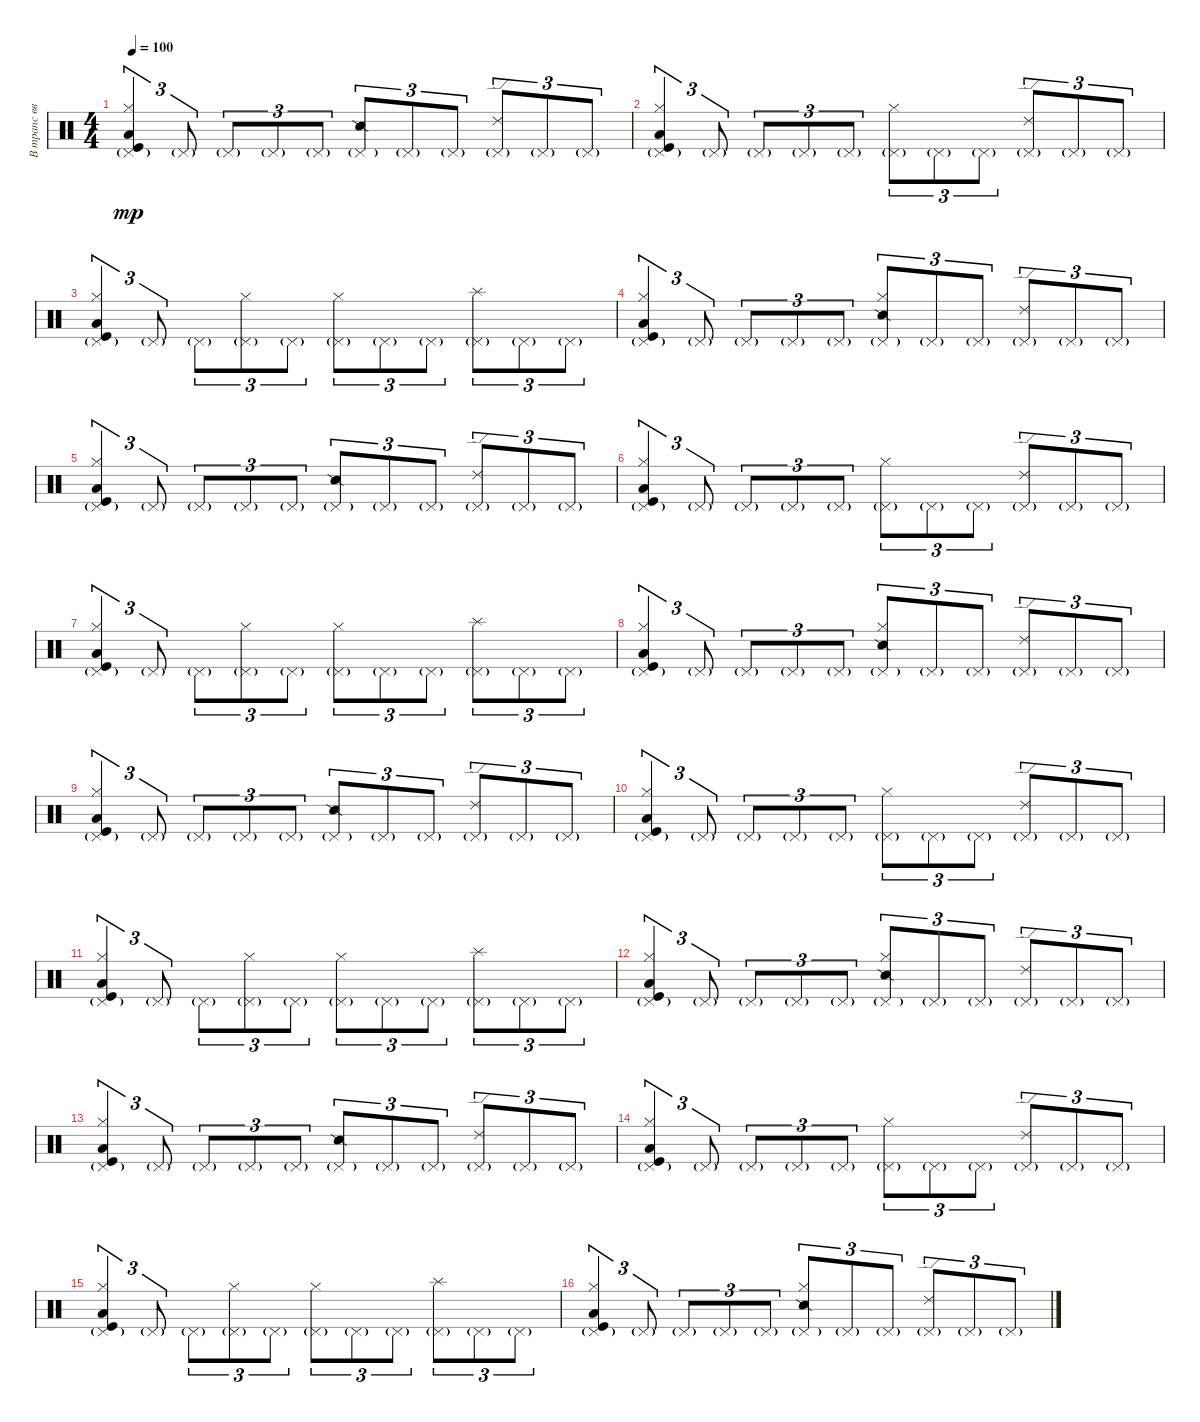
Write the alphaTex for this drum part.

\track ("В транс вводящие" "В транс вв") {instrument percussion}
\staff {score}
\articulation defaults
\ts (4 4)
\tempo 100
\clef neutral
\ks c
("Pedal Hi-Hat (hit)"{g} "Hi-Hat (closed)" "Low Tom (hit)" "Kick (hit)").4{tu (3 2) dy mp} "Pedal Hi-Hat (hit)"{g}.8{tu (3 2)} "Pedal Hi-Hat (hit)"{g}.8{tu (3 2)} "Pedal Hi-Hat (hit)"{g}.8{tu (3 2)} "Pedal Hi-Hat (hit)"{g}.8{tu (3 2)} ("Pedal Hi-Hat (hit)"{g} "Snare (side stick) 2").8{tu (3 2)} "Pedal Hi-Hat (hit)"{g}.8{tu (3 2)} "Pedal Hi-Hat (hit)"{g}.8{tu (3 2)} ("Pedal Hi-Hat (hit)"{g} "Ride (edge) 2").8{tu (3 2)} "Pedal Hi-Hat (hit)"{g}.8{tu (3 2)} "Pedal Hi-Hat (hit)"{g}.8{tu (3 2)} |
("Pedal Hi-Hat (hit)"{g} "Hi-Hat (closed)" "Low Tom (hit)" "Kick (hit)").4{tu (3 2)} "Pedal Hi-Hat (hit)"{g}.8{tu (3 2)} "Pedal Hi-Hat (hit)"{g}.8{tu (3 2)} "Pedal Hi-Hat (hit)"{g}.8{tu (3 2)} "Pedal Hi-Hat (hit)"{g}.8{tu (3 2)} ("Pedal Hi-Hat (hit)"{g} "Hi-Hat (closed)").8{tu (3 2)} "Pedal Hi-Hat (hit)"{g}.8{tu (3 2)} "Pedal Hi-Hat (hit)"{g}.8{tu (3 2)} ("Pedal Hi-Hat (hit)"{g} "Ride (edge) 2").8{tu (3 2)} "Pedal Hi-Hat (hit)"{g}.8{tu (3 2)} "Pedal Hi-Hat (hit)"{g}.8{tu (3 2)} |
("Pedal Hi-Hat (hit)"{g} "Hi-Hat (closed)" "Low Tom (hit)" "Kick (hit)").4{tu (3 2)} "Pedal Hi-Hat (hit)"{g}.8{tu (3 2)} "Pedal Hi-Hat (hit)"{g}.8{tu (3 2)} ("Pedal Hi-Hat (hit)"{g} "Hi-Hat (closed)").8{tu (3 2)} "Pedal Hi-Hat (hit)"{g}.8{tu (3 2)} ("Pedal Hi-Hat (hit)"{g} "Hi-Hat (closed)").8{tu (3 2)} "Pedal Hi-Hat (hit)"{g}.8{tu (3 2)} "Pedal Hi-Hat (hit)"{g}.8{tu (3 2)} ("Pedal Hi-Hat (hit)"{g} "Splash (hit)").8{tu (3 2)} "Pedal Hi-Hat (hit)"{g}.8{tu (3 2)} "Pedal Hi-Hat (hit)"{g}.8{tu (3 2)} |
("Pedal Hi-Hat (hit)"{g} "Hi-Hat (closed)" "Low Tom (hit)" "Kick (hit)").4{tu (3 2)} "Pedal Hi-Hat (hit)"{g}.8{tu (3 2)} "Pedal Hi-Hat (hit)"{g}.8{tu (3 2)} "Pedal Hi-Hat (hit)"{g}.8{tu (3 2)} "Pedal Hi-Hat (hit)"{g}.8{tu (3 2)} ("Pedal Hi-Hat (hit)"{g} "Snare (side stick) 2" "Hi-Hat (closed)").8{tu (3 2)} "Pedal Hi-Hat (hit)"{g}.8{tu (3 2)} "Pedal Hi-Hat (hit)"{g}.8{tu (3 2)} ("Pedal Hi-Hat (hit)"{g} "Ride (edge) 2").8{tu (3 2)} "Pedal Hi-Hat (hit)"{g}.8{tu (3 2)} "Pedal Hi-Hat (hit)"{g}.8{tu (3 2)} |
("Pedal Hi-Hat (hit)"{g} "Hi-Hat (closed)" "Low Tom (hit)" "Kick (hit)").4{tu (3 2)} "Pedal Hi-Hat (hit)"{g}.8{tu (3 2)} "Pedal Hi-Hat (hit)"{g}.8{tu (3 2)} "Pedal Hi-Hat (hit)"{g}.8{tu (3 2)} "Pedal Hi-Hat (hit)"{g}.8{tu (3 2)} ("Pedal Hi-Hat (hit)"{g} "Snare (side stick) 2").8{tu (3 2)} "Pedal Hi-Hat (hit)"{g}.8{tu (3 2)} "Pedal Hi-Hat (hit)"{g}.8{tu (3 2)} ("Pedal Hi-Hat (hit)"{g} "Ride (edge) 2").8{tu (3 2)} "Pedal Hi-Hat (hit)"{g}.8{tu (3 2)} "Pedal Hi-Hat (hit)"{g}.8{tu (3 2)} |
("Pedal Hi-Hat (hit)"{g} "Hi-Hat (closed)" "Low Tom (hit)" "Kick (hit)").4{tu (3 2)} "Pedal Hi-Hat (hit)"{g}.8{tu (3 2)} "Pedal Hi-Hat (hit)"{g}.8{tu (3 2)} "Pedal Hi-Hat (hit)"{g}.8{tu (3 2)} "Pedal Hi-Hat (hit)"{g}.8{tu (3 2)} ("Pedal Hi-Hat (hit)"{g} "Hi-Hat (closed)").8{tu (3 2)} "Pedal Hi-Hat (hit)"{g}.8{tu (3 2)} "Pedal Hi-Hat (hit)"{g}.8{tu (3 2)} ("Pedal Hi-Hat (hit)"{g} "Ride (edge) 2").8{tu (3 2)} "Pedal Hi-Hat (hit)"{g}.8{tu (3 2)} "Pedal Hi-Hat (hit)"{g}.8{tu (3 2)} |
("Pedal Hi-Hat (hit)"{g} "Hi-Hat (closed)" "Low Tom (hit)" "Kick (hit)").4{tu (3 2)} "Pedal Hi-Hat (hit)"{g}.8{tu (3 2)} "Pedal Hi-Hat (hit)"{g}.8{tu (3 2)} ("Pedal Hi-Hat (hit)"{g} "Hi-Hat (closed)").8{tu (3 2)} "Pedal Hi-Hat (hit)"{g}.8{tu (3 2)} ("Pedal Hi-Hat (hit)"{g} "Hi-Hat (closed)").8{tu (3 2)} "Pedal Hi-Hat (hit)"{g}.8{tu (3 2)} "Pedal Hi-Hat (hit)"{g}.8{tu (3 2)} ("Pedal Hi-Hat (hit)"{g} "Splash (hit)").8{tu (3 2)} "Pedal Hi-Hat (hit)"{g}.8{tu (3 2)} "Pedal Hi-Hat (hit)"{g}.8{tu (3 2)} |
("Pedal Hi-Hat (hit)"{g} "Hi-Hat (closed)" "Low Tom (hit)" "Kick (hit)").4{tu (3 2)} "Pedal Hi-Hat (hit)"{g}.8{tu (3 2)} "Pedal Hi-Hat (hit)"{g}.8{tu (3 2)} "Pedal Hi-Hat (hit)"{g}.8{tu (3 2)} "Pedal Hi-Hat (hit)"{g}.8{tu (3 2)} ("Pedal Hi-Hat (hit)"{g} "Snare (side stick) 2" "Hi-Hat (closed)").8{tu (3 2)} "Pedal Hi-Hat (hit)"{g}.8{tu (3 2)} "Pedal Hi-Hat (hit)"{g}.8{tu (3 2)} ("Pedal Hi-Hat (hit)"{g} "Ride (edge) 2").8{tu (3 2)} "Pedal Hi-Hat (hit)"{g}.8{tu (3 2)} "Pedal Hi-Hat (hit)"{g}.8{tu (3 2)} |
("Pedal Hi-Hat (hit)"{g} "Hi-Hat (closed)" "Low Tom (hit)" "Kick (hit)").4{tu (3 2)} "Pedal Hi-Hat (hit)"{g}.8{tu (3 2)} "Pedal Hi-Hat (hit)"{g}.8{tu (3 2)} "Pedal Hi-Hat (hit)"{g}.8{tu (3 2)} "Pedal Hi-Hat (hit)"{g}.8{tu (3 2)} ("Pedal Hi-Hat (hit)"{g} "Snare (side stick) 2").8{tu (3 2)} "Pedal Hi-Hat (hit)"{g}.8{tu (3 2)} "Pedal Hi-Hat (hit)"{g}.8{tu (3 2)} ("Pedal Hi-Hat (hit)"{g} "Ride (edge) 2").8{tu (3 2)} "Pedal Hi-Hat (hit)"{g}.8{tu (3 2)} "Pedal Hi-Hat (hit)"{g}.8{tu (3 2)} |
("Pedal Hi-Hat (hit)"{g} "Hi-Hat (closed)" "Low Tom (hit)" "Kick (hit)").4{tu (3 2)} "Pedal Hi-Hat (hit)"{g}.8{tu (3 2)} "Pedal Hi-Hat (hit)"{g}.8{tu (3 2)} "Pedal Hi-Hat (hit)"{g}.8{tu (3 2)} "Pedal Hi-Hat (hit)"{g}.8{tu (3 2)} ("Pedal Hi-Hat (hit)"{g} "Hi-Hat (closed)").8{tu (3 2)} "Pedal Hi-Hat (hit)"{g}.8{tu (3 2)} "Pedal Hi-Hat (hit)"{g}.8{tu (3 2)} ("Pedal Hi-Hat (hit)"{g} "Ride (edge) 2").8{tu (3 2)} "Pedal Hi-Hat (hit)"{g}.8{tu (3 2)} "Pedal Hi-Hat (hit)"{g}.8{tu (3 2)} |
("Pedal Hi-Hat (hit)"{g} "Hi-Hat (closed)" "Low Tom (hit)" "Kick (hit)").4{tu (3 2)} "Pedal Hi-Hat (hit)"{g}.8{tu (3 2)} "Pedal Hi-Hat (hit)"{g}.8{tu (3 2)} ("Pedal Hi-Hat (hit)"{g} "Hi-Hat (closed)").8{tu (3 2)} "Pedal Hi-Hat (hit)"{g}.8{tu (3 2)} ("Pedal Hi-Hat (hit)"{g} "Hi-Hat (closed)").8{tu (3 2)} "Pedal Hi-Hat (hit)"{g}.8{tu (3 2)} "Pedal Hi-Hat (hit)"{g}.8{tu (3 2)} ("Pedal Hi-Hat (hit)"{g} "Splash (hit)").8{tu (3 2)} "Pedal Hi-Hat (hit)"{g}.8{tu (3 2)} "Pedal Hi-Hat (hit)"{g}.8{tu (3 2)} |
("Pedal Hi-Hat (hit)"{g} "Hi-Hat (closed)" "Low Tom (hit)" "Kick (hit)").4{tu (3 2)} "Pedal Hi-Hat (hit)"{g}.8{tu (3 2)} "Pedal Hi-Hat (hit)"{g}.8{tu (3 2)} "Pedal Hi-Hat (hit)"{g}.8{tu (3 2)} "Pedal Hi-Hat (hit)"{g}.8{tu (3 2)} ("Pedal Hi-Hat (hit)"{g} "Snare (side stick) 2" "Hi-Hat (closed)").8{tu (3 2)} "Pedal Hi-Hat (hit)"{g}.8{tu (3 2)} "Pedal Hi-Hat (hit)"{g}.8{tu (3 2)} ("Pedal Hi-Hat (hit)"{g} "Ride (edge) 2").8{tu (3 2)} "Pedal Hi-Hat (hit)"{g}.8{tu (3 2)} "Pedal Hi-Hat (hit)"{g}.8{tu (3 2)} |
("Pedal Hi-Hat (hit)"{g} "Hi-Hat (closed)" "Low Tom (hit)" "Kick (hit)").4{tu (3 2)} "Pedal Hi-Hat (hit)"{g}.8{tu (3 2)} "Pedal Hi-Hat (hit)"{g}.8{tu (3 2)} "Pedal Hi-Hat (hit)"{g}.8{tu (3 2)} "Pedal Hi-Hat (hit)"{g}.8{tu (3 2)} ("Pedal Hi-Hat (hit)"{g} "Snare (side stick) 2").8{tu (3 2)} "Pedal Hi-Hat (hit)"{g}.8{tu (3 2)} "Pedal Hi-Hat (hit)"{g}.8{tu (3 2)} ("Pedal Hi-Hat (hit)"{g} "Ride (edge) 2").8{tu (3 2)} "Pedal Hi-Hat (hit)"{g}.8{tu (3 2)} "Pedal Hi-Hat (hit)"{g}.8{tu (3 2)} |
("Pedal Hi-Hat (hit)"{g} "Hi-Hat (closed)" "Low Tom (hit)" "Kick (hit)").4{tu (3 2)} "Pedal Hi-Hat (hit)"{g}.8{tu (3 2)} "Pedal Hi-Hat (hit)"{g}.8{tu (3 2)} "Pedal Hi-Hat (hit)"{g}.8{tu (3 2)} "Pedal Hi-Hat (hit)"{g}.8{tu (3 2)} ("Pedal Hi-Hat (hit)"{g} "Hi-Hat (closed)").8{tu (3 2)} "Pedal Hi-Hat (hit)"{g}.8{tu (3 2)} "Pedal Hi-Hat (hit)"{g}.8{tu (3 2)} ("Pedal Hi-Hat (hit)"{g} "Ride (edge) 2").8{tu (3 2)} "Pedal Hi-Hat (hit)"{g}.8{tu (3 2)} "Pedal Hi-Hat (hit)"{g}.8{tu (3 2)} |
("Pedal Hi-Hat (hit)"{g} "Hi-Hat (closed)" "Low Tom (hit)" "Kick (hit)").4{tu (3 2)} "Pedal Hi-Hat (hit)"{g}.8{tu (3 2)} "Pedal Hi-Hat (hit)"{g}.8{tu (3 2)} ("Pedal Hi-Hat (hit)"{g} "Hi-Hat (closed)").8{tu (3 2)} "Pedal Hi-Hat (hit)"{g}.8{tu (3 2)} ("Pedal Hi-Hat (hit)"{g} "Hi-Hat (closed)").8{tu (3 2)} "Pedal Hi-Hat (hit)"{g}.8{tu (3 2)} "Pedal Hi-Hat (hit)"{g}.8{tu (3 2)} ("Pedal Hi-Hat (hit)"{g} "Splash (hit)").8{tu (3 2)} "Pedal Hi-Hat (hit)"{g}.8{tu (3 2)} "Pedal Hi-Hat (hit)"{g}.8{tu (3 2)} |
("Pedal Hi-Hat (hit)"{g} "Hi-Hat (closed)" "Low Tom (hit)" "Kick (hit)").4{tu (3 2)} "Pedal Hi-Hat (hit)"{g}.8{tu (3 2)} "Pedal Hi-Hat (hit)"{g}.8{tu (3 2)} "Pedal Hi-Hat (hit)"{g}.8{tu (3 2)} "Pedal Hi-Hat (hit)"{g}.8{tu (3 2)} ("Pedal Hi-Hat (hit)"{g} "Snare (side stick) 2" "Hi-Hat (closed)").8{tu (3 2)} "Pedal Hi-Hat (hit)"{g}.8{tu (3 2)} "Pedal Hi-Hat (hit)"{g}.8{tu (3 2)} ("Pedal Hi-Hat (hit)"{g} "Ride (edge) 2").8{tu (3 2)} "Pedal Hi-Hat (hit)"{g}.8{tu (3 2)} "Pedal Hi-Hat (hit)"{g}.8{tu (3 2)}
